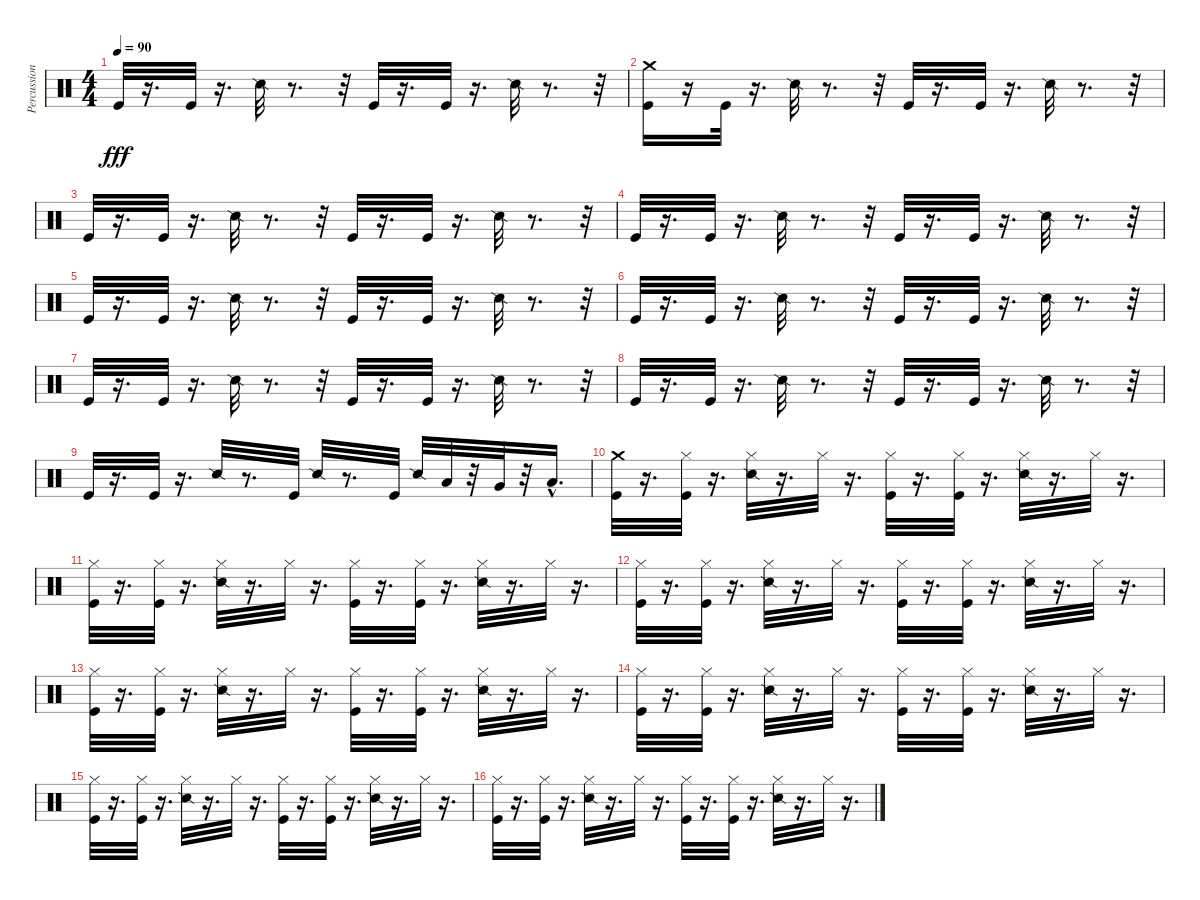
\track ("Percussion" "Percussion") {instrument percussion}
\staff {score}
\articulation defaults
\ts (4 4)
\tempo 90
\clef neutral
\ks c "Kick (hit)".32{dy fff}
r.16{d} "Kick (hit)".32 r.16{d} "Snare (side stick) 2".32 r.8{d} r.32 "Kick (hit)".32 r.16{d} "Kick (hit)".32 r.16{d} "Snare (side stick) 2".32 r.8{d} r.32 |
("Kick (hit)" "Crash medium (hit)").16 r.16 "Kick (hit)".32 r.16{d} "Snare (side stick) 2".32 r.8{d} r.32 "Kick (hit)".32 r.16{d} "Kick (hit)".32 r.16{d} "Snare (side stick) 2".32 r.8{d} r.32 |
"Kick (hit)".32 r.16{d} "Kick (hit)".32 r.16{d} "Snare (side stick) 2".32 r.8{d} r.32 "Kick (hit)".32 r.16{d} "Kick (hit)".32 r.16{d} "Snare (side stick) 2".32 r.8{d} r.32 |
"Kick (hit)".32 r.16{d} "Kick (hit)".32 r.16{d} "Snare (side stick) 2".32 r.8{d} r.32 "Kick (hit)".32 r.16{d} "Kick (hit)".32 r.16{d} "Snare (side stick) 2".32 r.8{d} r.32 |
"Kick (hit)".32 r.16{d} "Kick (hit)".32 r.16{d} "Snare (side stick) 2".32 r.8{d} r.32 "Kick (hit)".32 r.16{d} "Kick (hit)".32 r.16{d} "Snare (side stick) 2".32 r.8{d} r.32 |
"Kick (hit)".32 r.16{d} "Kick (hit)".32 r.16{d} "Snare (side stick) 2".32 r.8{d} r.32 "Kick (hit)".32 r.16{d} "Kick (hit)".32 r.16{d} "Snare (side stick) 2".32 r.8{d} r.32 |
"Kick (hit)".32 r.16{d} "Kick (hit)".32 r.16{d} "Snare (side stick) 2".32 r.8{d} r.32 "Kick (hit)".32 r.16{d} "Kick (hit)".32 r.16{d} "Snare (side stick) 2".32 r.8{d} r.32 |
"Kick (hit)".32 r.16{d} "Kick (hit)".32 r.16{d} "Snare (side stick) 2".32 r.8{d} r.32 "Kick (hit)".32 r.16{d} "Kick (hit)".32 r.16{d} "Snare (side stick) 2".32 r.8{d} r.32 |
"Kick (hit)".32 r.16{d} "Kick (hit)".32 r.16{d} "Snare (side stick) 2".32 r.8{d} "Kick (hit)".32 "Snare (side stick) 2".32 r.8{d} "Kick (hit)".32 "Snare (side stick) 2".32 "Low Tom (hit)".32 r.32 "Very Low Tom (hit)".32 r.32 "Low Floor Tom (hit)"{hac}.16{d} |
("Kick (hit)" "Crash medium (hit)").32 r.16{d} ("Kick (hit)" "Hi-Hat (closed)").32 r.16{d} ("Snare (side stick) 2" "Hi-Hat (closed)").32 r.16{d} "Hi-Hat (closed)".32 r.16{d} ("Kick (hit)" "Hi-Hat (closed)").32 r.16{d} ("Kick (hit)" "Hi-Hat (closed)").32 r.16{d} ("Snare (side stick) 2" "Hi-Hat (closed)").32 r.16{d} "Hi-Hat (closed)".32 r.16{d} |
("Kick (hit)" "Hi-Hat (closed)").32 r.16{d} ("Kick (hit)" "Hi-Hat (closed)").32 r.16{d} ("Snare (side stick) 2" "Hi-Hat (closed)").32 r.16{d} "Hi-Hat (closed)".32 r.16{d} ("Kick (hit)" "Hi-Hat (closed)").32 r.16{d} ("Kick (hit)" "Hi-Hat (closed)").32 r.16{d} ("Snare (side stick) 2" "Hi-Hat (closed)").32 r.16{d} "Hi-Hat (closed)".32 r.16{d} |
("Kick (hit)" "Hi-Hat (closed)").32 r.16{d} ("Kick (hit)" "Hi-Hat (closed)").32 r.16{d} ("Snare (side stick) 2" "Hi-Hat (closed)").32 r.16{d} "Hi-Hat (closed)".32 r.16{d} ("Kick (hit)" "Hi-Hat (closed)").32 r.16{d} ("Kick (hit)" "Hi-Hat (closed)").32 r.16{d} ("Snare (side stick) 2" "Hi-Hat (closed)").32 r.16{d} "Hi-Hat (closed)".32 r.16{d} |
("Kick (hit)" "Hi-Hat (closed)").32 r.16{d} ("Kick (hit)" "Hi-Hat (closed)").32 r.16{d} ("Snare (side stick) 2" "Hi-Hat (closed)").32 r.16{d} "Hi-Hat (closed)".32 r.16{d} ("Kick (hit)" "Hi-Hat (closed)").32 r.16{d} ("Kick (hit)" "Hi-Hat (closed)").32 r.16{d} ("Snare (side stick) 2" "Hi-Hat (closed)").32 r.16{d} "Hi-Hat (closed)".32 r.16{d} |
("Kick (hit)" "Hi-Hat (closed)").32 r.16{d} ("Kick (hit)" "Hi-Hat (closed)").32 r.16{d} ("Snare (side stick) 2" "Hi-Hat (closed)").32 r.16{d} "Hi-Hat (closed)".32 r.16{d} ("Kick (hit)" "Hi-Hat (closed)").32 r.16{d} ("Kick (hit)" "Hi-Hat (closed)").32 r.16{d} ("Snare (side stick) 2" "Hi-Hat (closed)").32 r.16{d} "Hi-Hat (closed)".32 r.16{d} |
("Kick (hit)" "Hi-Hat (closed)").32 r.16{d} ("Kick (hit)" "Hi-Hat (closed)").32 r.16{d} ("Snare (side stick) 2" "Hi-Hat (closed)").32 r.16{d} "Hi-Hat (closed)".32 r.16{d} ("Kick (hit)" "Hi-Hat (closed)").32 r.16{d} ("Kick (hit)" "Hi-Hat (closed)").32 r.16{d} ("Snare (side stick) 2" "Hi-Hat (closed)").32 r.16{d} "Hi-Hat (closed)".32 r.16{d} |
("Kick (hit)" "Hi-Hat (closed)").32 r.16{d} ("Kick (hit)" "Hi-Hat (closed)").32 r.16{d} ("Snare (side stick) 2" "Hi-Hat (closed)").32 r.16{d} "Hi-Hat (closed)".32 r.16{d} ("Kick (hit)" "Hi-Hat (closed)").32 r.16{d} ("Kick (hit)" "Hi-Hat (closed)").32 r.16{d} ("Snare (side stick) 2" "Hi-Hat (closed)").32 r.16{d} "Hi-Hat (closed)".32 r.16{d}
